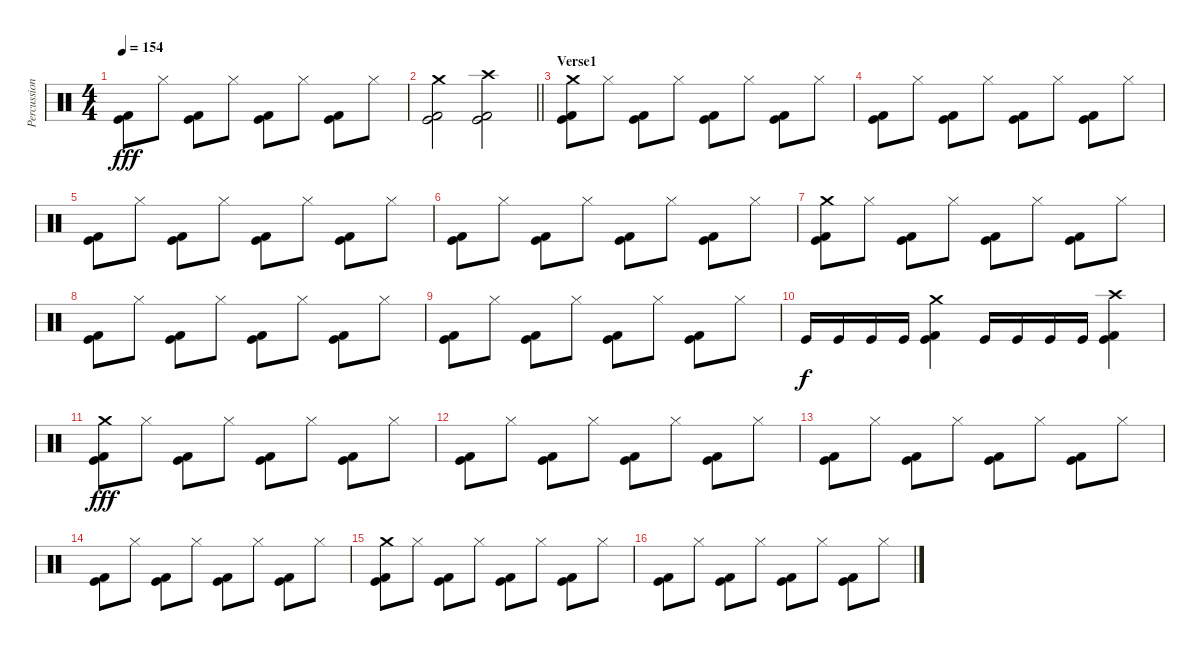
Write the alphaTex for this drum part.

\track ("Percussion" "Percussion") {instrument percussion}
\staff {score}
\articulation defaults
\ts (4 4)
\tempo 154
\clef neutral
\ks c
("Kick (hit)" "Kick (hit) 2").8{dy fff} "Hi-Hat (closed)".8 ("Kick (hit)" "Kick (hit) 2").8 "Hi-Hat (closed)".8 ("Kick (hit)" "Kick (hit) 2").8 "Hi-Hat (closed)".8 ("Kick (hit)" "Kick (hit) 2").8 "Hi-Hat (closed)".8 |
\barLineRight lightlight
("Crash medium (hit)" "Kick (hit)" "Kick (hit) 2").2 ("Crash high (hit)" "Kick (hit)" "Kick (hit) 2").2 |
\section ("" "Verse1")
("Crash medium (hit)" "Kick (hit)" "Kick (hit) 2").8 "Hi-Hat (closed)".8 ("Kick (hit)" "Kick (hit) 2").8 "Hi-Hat (closed)".8 ("Kick (hit)" "Kick (hit) 2").8 "Hi-Hat (closed)".8 ("Kick (hit)" "Kick (hit) 2").8 "Hi-Hat (closed)".8 |
("Kick (hit)" "Kick (hit) 2").8 "Hi-Hat (closed)".8 ("Kick (hit)" "Kick (hit) 2").8 "Hi-Hat (closed)".8 ("Kick (hit)" "Kick (hit) 2").8 "Hi-Hat (closed)".8 ("Kick (hit)" "Kick (hit) 2").8 "Hi-Hat (closed)".8 |
("Kick (hit)" "Kick (hit) 2").8 "Hi-Hat (closed)".8 ("Kick (hit)" "Kick (hit) 2").8 "Hi-Hat (closed)".8 ("Kick (hit)" "Kick (hit) 2").8 "Hi-Hat (closed)".8 ("Kick (hit)" "Kick (hit) 2").8 "Hi-Hat (closed)".8 |
("Kick (hit)" "Kick (hit) 2").8 "Hi-Hat (closed)".8 ("Kick (hit)" "Kick (hit) 2").8 "Hi-Hat (closed)".8 ("Kick (hit)" "Kick (hit) 2").8 "Hi-Hat (closed)".8 ("Kick (hit)" "Kick (hit) 2").8 "Hi-Hat (closed)".8 |
("Crash medium (hit)" "Kick (hit)" "Kick (hit) 2").8 "Hi-Hat (closed)".8 ("Kick (hit)" "Kick (hit) 2").8 "Hi-Hat (closed)".8 ("Kick (hit)" "Kick (hit) 2").8 "Hi-Hat (closed)".8 ("Kick (hit)" "Kick (hit) 2").8 "Hi-Hat (closed)".8 |
("Kick (hit)" "Kick (hit) 2").8 "Hi-Hat (closed)".8 ("Kick (hit)" "Kick (hit) 2").8 "Hi-Hat (closed)".8 ("Kick (hit)" "Kick (hit) 2").8 "Hi-Hat (closed)".8 ("Kick (hit)" "Kick (hit) 2").8 "Hi-Hat (closed)".8 |
("Kick (hit)" "Kick (hit) 2").8 "Hi-Hat (closed)".8 ("Kick (hit)" "Kick (hit) 2").8 "Hi-Hat (closed)".8 ("Kick (hit)" "Kick (hit) 2").8 "Hi-Hat (closed)".8 ("Kick (hit)" "Kick (hit) 2").8 "Hi-Hat (closed)".8 |
"Kick (hit)".16{dy f} "Kick (hit)".16 "Kick (hit)".16 "Kick (hit)".16 ("Crash medium (hit)" "Kick (hit) 2" "Kick (hit)").4 "Kick (hit)".16 "Kick (hit)".16 "Kick (hit)".16 "Kick (hit)".16 ("Crash high (hit)" "Kick (hit) 2" "Kick (hit)").4 |
("Crash medium (hit)" "Kick (hit)" "Kick (hit) 2").8{dy fff} "Hi-Hat (closed)".8 ("Kick (hit)" "Kick (hit) 2").8 "Hi-Hat (closed)".8 ("Kick (hit)" "Kick (hit) 2").8 "Hi-Hat (closed)".8 ("Kick (hit)" "Kick (hit) 2").8 "Hi-Hat (closed)".8 |
("Kick (hit)" "Kick (hit) 2").8 "Hi-Hat (closed)".8 ("Kick (hit)" "Kick (hit) 2").8 "Hi-Hat (closed)".8 ("Kick (hit)" "Kick (hit) 2").8 "Hi-Hat (closed)".8 ("Kick (hit)" "Kick (hit) 2").8 "Hi-Hat (closed)".8 |
("Kick (hit)" "Kick (hit) 2").8 "Hi-Hat (closed)".8 ("Kick (hit)" "Kick (hit) 2").8 "Hi-Hat (closed)".8 ("Kick (hit)" "Kick (hit) 2").8 "Hi-Hat (closed)".8 ("Kick (hit)" "Kick (hit) 2").8 "Hi-Hat (closed)".8 |
("Kick (hit)" "Kick (hit) 2").8 "Hi-Hat (closed)".8 ("Kick (hit)" "Kick (hit) 2").8 "Hi-Hat (closed)".8 ("Kick (hit)" "Kick (hit) 2").8 "Hi-Hat (closed)".8 ("Kick (hit)" "Kick (hit) 2").8 "Hi-Hat (closed)".8 |
("Crash medium (hit)" "Kick (hit)" "Kick (hit) 2").8 "Hi-Hat (closed)".8 ("Kick (hit)" "Kick (hit) 2").8 "Hi-Hat (closed)".8 ("Kick (hit)" "Kick (hit) 2").8 "Hi-Hat (closed)".8 ("Kick (hit)" "Kick (hit) 2").8 "Hi-Hat (closed)".8 |
("Kick (hit)" "Kick (hit) 2").8 "Hi-Hat (closed)".8 ("Kick (hit)" "Kick (hit) 2").8 "Hi-Hat (closed)".8 ("Kick (hit)" "Kick (hit) 2").8 "Hi-Hat (closed)".8 ("Kick (hit)" "Kick (hit) 2").8 "Hi-Hat (closed)".8
